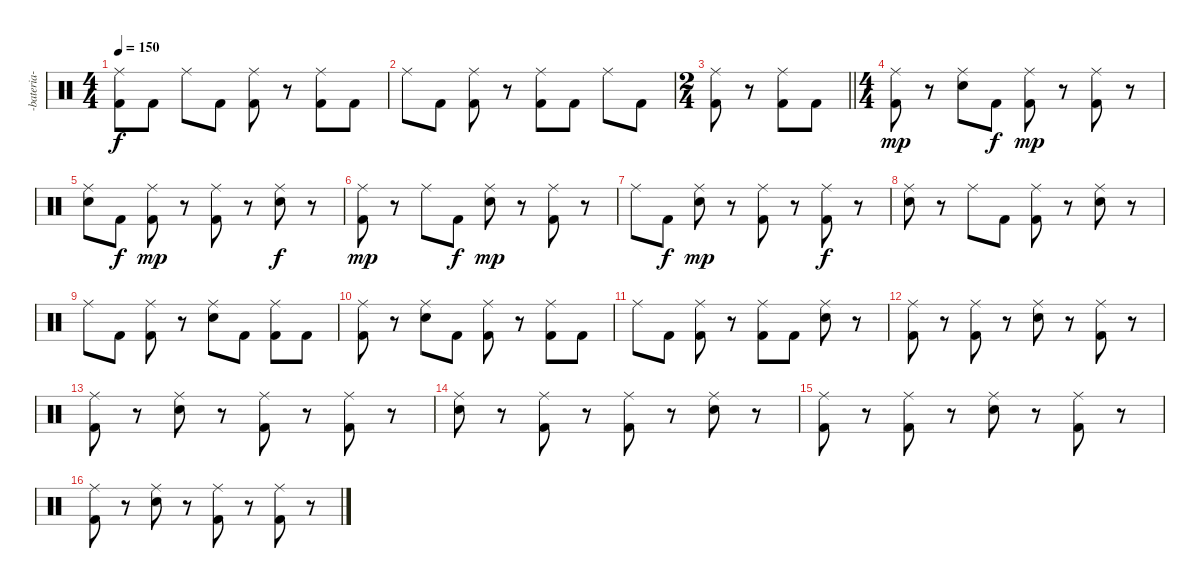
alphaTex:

\track ("-bateria-" "-bateria-") {instrument percussion}
\staff {score}
\articulation defaults
\ts (4 4)
\tempo 150
\clef neutral
\ks c
("Ride (middle)" "Kick (hit) 2").8{dy f} "Kick (hit) 2".8 "Ride (middle)".8 "Kick (hit) 2".8 ("Ride (middle)" "Kick (hit) 2").8 r.8 ("Ride (middle)" "Kick (hit) 2").8 "Kick (hit) 2".8 |
"Ride (middle)".8 "Kick (hit) 2".8 ("Ride (middle)" "Kick (hit) 2").8 r.8 ("Ride (middle)" "Kick (hit) 2").8 "Kick (hit) 2".8 "Ride (middle)".8 "Kick (hit) 2".8 |
\ts (2 4)
\barLineRight lightlight
("Ride (middle)" "Kick (hit) 2").8 r.8 ("Ride (middle)" "Kick (hit) 2").8 "Kick (hit) 2".8 |
\ts (4 4)
\section ("" "")
("Ride (middle)" "Kick (hit) 2").8{dy mp} r.8 ("Ride (middle)" "Electric Snare (hit)").8 "Kick (hit) 2".8{dy f} ("Ride (middle)" "Kick (hit) 2").8{dy mp} r.8 ("Ride (middle)" "Kick (hit) 2").8 r.8 |
("Ride (middle)" "Electric Snare (hit)").8 "Kick (hit) 2".8{dy f} ("Ride (middle)" "Kick (hit) 2").8{dy mp} r.8 ("Ride (middle)" "Kick (hit) 2").8 r.8 ("Ride (middle)" "Electric Snare (hit)").8{dy f} r.8 |
("Ride (middle)" "Kick (hit) 2").8{dy mp} r.8 "Ride (middle)".8 "Kick (hit) 2".8{dy f} ("Ride (middle)" "Electric Snare (hit)").8{dy mp} r.8 ("Ride (middle)" "Kick (hit) 2").8 r.8 |
"Ride (middle)".8 "Kick (hit) 2".8{dy f} ("Ride (middle)" "Electric Snare (hit)").8{dy mp} r.8 ("Ride (middle)" "Kick (hit) 2").8 r.8 ("Ride (middle)" "Kick (hit) 2").8{dy f} r.8 |
("Ride (middle)" "Electric Snare (hit)").8 r.8 "Ride (middle)".8 "Kick (hit) 2".8 ("Ride (middle)" "Kick (hit) 2").8 r.8 ("Ride (middle)" "Electric Snare (hit)").8 r.8 |
"Ride (middle)".8 "Kick (hit) 2".8 ("Ride (middle)" "Kick (hit) 2").8 r.8 ("Ride (middle)" "Electric Snare (hit)").8 "Kick (hit) 2".8 ("Ride (middle)" "Kick (hit) 2").8 "Kick (hit) 2".8 |
("Ride (middle)" "Kick (hit) 2").8 r.8 ("Ride (middle)" "Electric Snare (hit)").8 "Kick (hit) 2".8 ("Ride (middle)" "Kick (hit) 2").8 r.8 ("Ride (middle)" "Kick (hit) 2").8 "Kick (hit) 2".8 |
"Ride (middle)".8 "Kick (hit) 2".8 ("Ride (middle)" "Kick (hit) 2").8 r.8 ("Ride (middle)" "Kick (hit) 2").8 "Kick (hit) 2".8 ("Ride (middle)" "Electric Snare (hit)").8 r.8 |
("Ride (middle)" "Kick (hit) 2").8 r.8 ("Ride (middle)" "Kick (hit) 2").8 r.8 ("Ride (middle)" "Electric Snare (hit)").8 r.8 ("Ride (middle)" "Kick (hit) 2").8 r.8 |
("Ride (middle)" "Kick (hit) 2").8 r.8 ("Ride (middle)" "Electric Snare (hit)").8 r.8 ("Ride (middle)" "Kick (hit) 2").8 r.8 ("Ride (middle)" "Kick (hit) 2").8 r.8 |
("Ride (middle)" "Electric Snare (hit)").8 r.8 ("Ride (middle)" "Kick (hit) 2").8 r.8 ("Ride (middle)" "Kick (hit) 2").8 r.8 ("Ride (middle)" "Electric Snare (hit)").8 r.8 |
("Ride (middle)" "Kick (hit) 2").8 r.8 ("Ride (middle)" "Kick (hit) 2").8 r.8 ("Ride (middle)" "Electric Snare (hit)").8 r.8 ("Ride (middle)" "Kick (hit) 2").8 r.8 |
("Ride (middle)" "Kick (hit) 2").8 r.8 ("Ride (middle)" "Electric Snare (hit)").8 r.8 ("Ride (middle)" "Kick (hit) 2").8 r.8 ("Ride (middle)" "Kick (hit) 2").8 r.8
